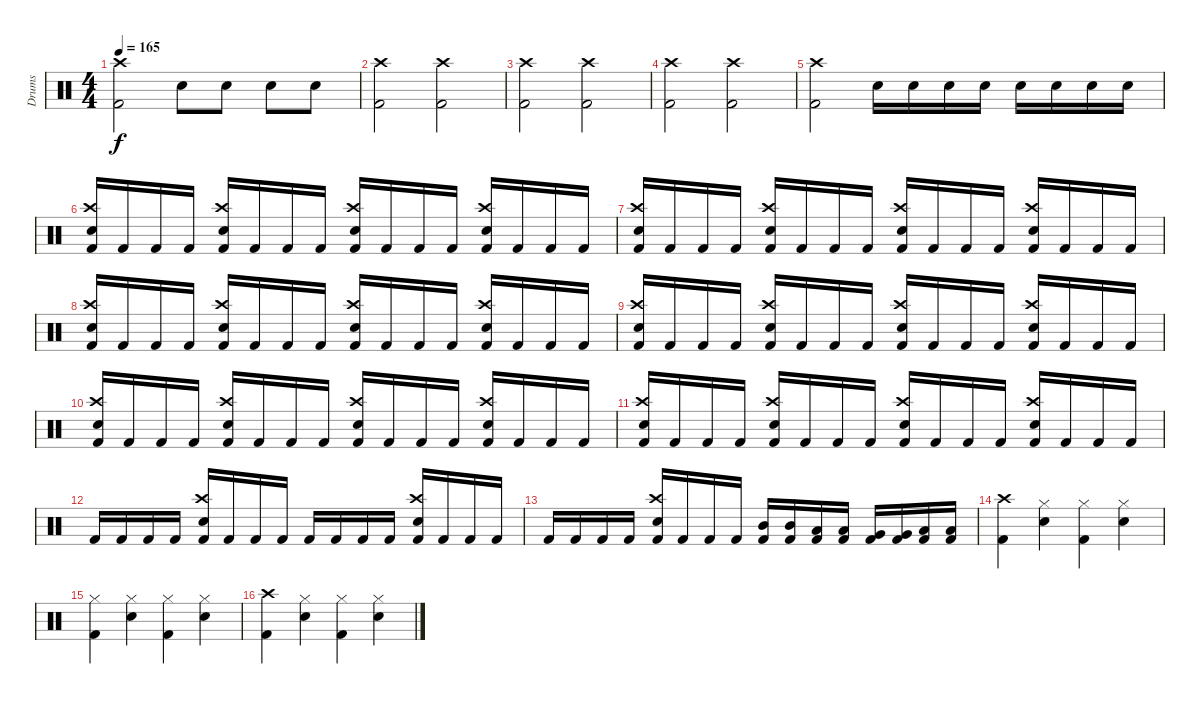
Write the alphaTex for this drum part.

\track ("Drums" "Drums") {instrument percussion}
\staff {score}
\articulation defaults
\ts (4 4)
\tempo 165
\clef neutral
\ks c
("Kick (hit) 2" "Crash high (hit)").2{dy f} "Snare (hit) 2".8 "Snare (hit) 2".8 "Snare (hit) 2".8 "Snare (hit) 2".8 |
("Kick (hit) 2" "Crash high (hit)").2 ("Kick (hit) 2" "Crash high (hit)").2 |
("Kick (hit) 2" "Crash high (hit)").2 ("Kick (hit) 2" "Crash high (hit)").2 |
("Kick (hit) 2" "Crash high (hit)").2 ("Kick (hit) 2" "Crash high (hit)").2 |
("Kick (hit) 2" "Crash high (hit)").2 "Snare (hit) 2".16 "Snare (hit) 2".16 "Snare (hit) 2".16 "Snare (hit) 2".16 "Snare (hit) 2".16 "Snare (hit) 2".16 "Snare (hit) 2".16 "Snare (hit) 2".16 |
("Kick (hit) 2" "Snare (hit) 2" "Crash high (hit)").16 "Kick (hit) 2".16 "Kick (hit) 2".16 "Kick (hit) 2".16 ("Kick (hit) 2" "Snare (hit) 2" "Crash high (hit)").16 "Kick (hit) 2".16 "Kick (hit) 2".16 "Kick (hit) 2".16 ("Kick (hit) 2" "Snare (hit) 2" "Crash high (hit)").16 "Kick (hit) 2".16 "Kick (hit) 2".16 "Kick (hit) 2".16 ("Kick (hit) 2" "Snare (hit) 2" "Crash high (hit)").16 "Kick (hit) 2".16 "Kick (hit) 2".16 "Kick (hit) 2".16 |
("Kick (hit) 2" "Snare (hit) 2" "Crash high (hit)").16 "Kick (hit) 2".16 "Kick (hit) 2".16 "Kick (hit) 2".16 ("Kick (hit) 2" "Snare (hit) 2" "Crash high (hit)").16 "Kick (hit) 2".16 "Kick (hit) 2".16 "Kick (hit) 2".16 ("Kick (hit) 2" "Snare (hit) 2" "Crash high (hit)").16 "Kick (hit) 2".16 "Kick (hit) 2".16 "Kick (hit) 2".16 ("Kick (hit) 2" "Snare (hit) 2" "Crash high (hit)").16 "Kick (hit) 2".16 "Kick (hit) 2".16 "Kick (hit) 2".16 |
("Kick (hit) 2" "Snare (hit) 2" "Crash high (hit)").16 "Kick (hit) 2".16 "Kick (hit) 2".16 "Kick (hit) 2".16 ("Kick (hit) 2" "Snare (hit) 2" "Crash high (hit)").16 "Kick (hit) 2".16 "Kick (hit) 2".16 "Kick (hit) 2".16 ("Kick (hit) 2" "Snare (hit) 2" "Crash high (hit)").16 "Kick (hit) 2".16 "Kick (hit) 2".16 "Kick (hit) 2".16 ("Kick (hit) 2" "Snare (hit) 2" "Crash high (hit)").16 "Kick (hit) 2".16 "Kick (hit) 2".16 "Kick (hit) 2".16 |
("Kick (hit) 2" "Snare (hit) 2" "Crash high (hit)").16 "Kick (hit) 2".16 "Kick (hit) 2".16 "Kick (hit) 2".16 ("Kick (hit) 2" "Snare (hit) 2" "Crash high (hit)").16 "Kick (hit) 2".16 "Kick (hit) 2".16 "Kick (hit) 2".16 ("Kick (hit) 2" "Snare (hit) 2" "Crash high (hit)").16 "Kick (hit) 2".16 "Kick (hit) 2".16 "Kick (hit) 2".16 ("Kick (hit) 2" "Snare (hit) 2" "Crash high (hit)").16 "Kick (hit) 2".16 "Kick (hit) 2".16 "Kick (hit) 2".16 |
("Kick (hit) 2" "Snare (hit) 2" "Crash high (hit)").16 "Kick (hit) 2".16 "Kick (hit) 2".16 "Kick (hit) 2".16 ("Kick (hit) 2" "Snare (hit) 2" "Crash high (hit)").16 "Kick (hit) 2".16 "Kick (hit) 2".16 "Kick (hit) 2".16 ("Kick (hit) 2" "Snare (hit) 2" "Crash high (hit)").16 "Kick (hit) 2".16 "Kick (hit) 2".16 "Kick (hit) 2".16 ("Kick (hit) 2" "Snare (hit) 2" "Crash high (hit)").16 "Kick (hit) 2".16 "Kick (hit) 2".16 "Kick (hit) 2".16 |
("Kick (hit) 2" "Snare (hit) 2" "Crash high (hit)").16 "Kick (hit) 2".16 "Kick (hit) 2".16 "Kick (hit) 2".16 ("Kick (hit) 2" "Snare (hit) 2" "Crash high (hit)").16 "Kick (hit) 2".16 "Kick (hit) 2".16 "Kick (hit) 2".16 ("Kick (hit) 2" "Snare (hit) 2" "Crash high (hit)").16 "Kick (hit) 2".16 "Kick (hit) 2".16 "Kick (hit) 2".16 ("Kick (hit) 2" "Snare (hit) 2" "Crash high (hit)").16 "Kick (hit) 2".16 "Kick (hit) 2".16 "Kick (hit) 2".16 |
"Kick (hit) 2".16 "Kick (hit) 2".16 "Kick (hit) 2".16 "Kick (hit) 2".16 ("Kick (hit) 2" "Snare (hit) 2" "Crash high (hit)").16 "Kick (hit) 2".16 "Kick (hit) 2".16 "Kick (hit) 2".16 "Kick (hit) 2".16 "Kick (hit) 2".16 "Kick (hit) 2".16 "Kick (hit) 2".16 ("Kick (hit) 2" "Snare (hit) 2" "Crash high (hit)").16 "Kick (hit) 2".16 "Kick (hit) 2".16 "Kick (hit) 2".16 |
"Kick (hit) 2".16 "Kick (hit) 2".16 "Kick (hit) 2".16 "Kick (hit) 2".16 ("Kick (hit) 2" "Snare (hit) 2" "Crash high (hit)").16 "Kick (hit) 2".16 "Kick (hit) 2".16 "Kick (hit) 2".16 ("Kick (hit) 2" "Mid Tom (hit)").16 ("Kick (hit) 2" "Mid Tom (hit)").16 ("Kick (hit) 2" "Low Tom (hit)").16 ("Kick (hit) 2" "Low Tom (hit)").16 ("Kick (hit) 2" "Very Low Tom (hit)").16 ("Kick (hit) 2" "Very Low Tom (hit)").16 ("Kick (hit) 2" "Low Floor Tom (hit)").16 ("Kick (hit) 2" "Low Floor Tom (hit)").16 |
("Kick (hit) 2" "Crash high (hit)").4 ("Snare (hit) 2" "Hi-Hat (closed)").4 ("Kick (hit) 2" "Hi-Hat (closed)").4 ("Snare (hit) 2" "Hi-Hat (closed)").4 |
("Kick (hit) 2" "Hi-Hat (closed)").4 ("Snare (hit) 2" "Hi-Hat (closed)").4 ("Kick (hit) 2" "Hi-Hat (closed)").4 ("Snare (hit) 2" "Hi-Hat (closed)").4 |
("Kick (hit) 2" "Crash high (hit)").4 ("Snare (hit) 2" "Hi-Hat (closed)").4 ("Kick (hit) 2" "Hi-Hat (closed)").4 ("Snare (hit) 2" "Hi-Hat (closed)").4
